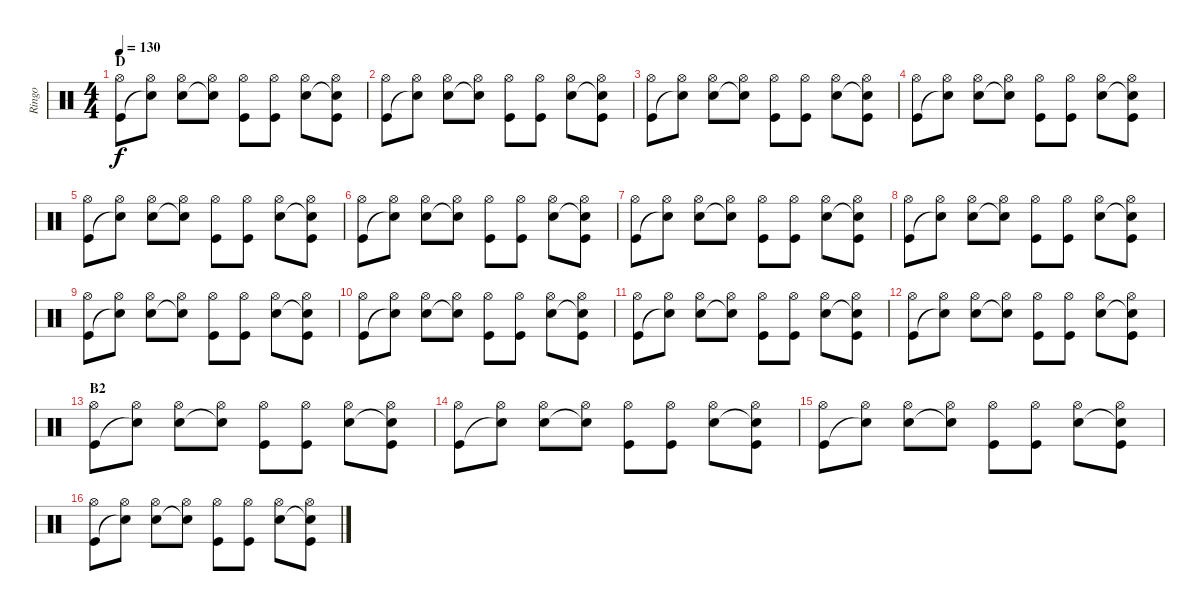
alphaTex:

\track ("Ringo" "Ringo") {instrument percussion}
\staff {score}
\articulation defaults
\ts (4 4)
\section ("" "D")
\tempo 130
\clef neutral
\ks c
("Hi-Hat (open)" "Kick (hit)").8{dy f} ("Hi-Hat (open)" "Snare (hit)"{t}).8 ("Hi-Hat (open)" "Snare (hit) 2").8 ("Hi-Hat (open)" "Snare (hit)"{t}).8 ("Hi-Hat (open)" "Kick (hit)").8 ("Hi-Hat (open)" "Kick (hit)").8 ("Hi-Hat (open)" "Snare (hit) 2").8 ("Hi-Hat (open)" "Snare (hit)"{t} "Kick (hit)").8 |
("Hi-Hat (open)" "Kick (hit)").8 ("Hi-Hat (open)" "Snare (hit)"{t}).8 ("Hi-Hat (open)" "Snare (hit) 2").8 ("Hi-Hat (open)" "Snare (hit)"{t}).8 ("Hi-Hat (open)" "Kick (hit)").8 ("Hi-Hat (open)" "Kick (hit)").8 ("Hi-Hat (open)" "Snare (hit) 2").8 ("Hi-Hat (open)" "Snare (hit)"{t} "Kick (hit)").8 |
("Hi-Hat (open)" "Kick (hit)").8 ("Hi-Hat (open)" "Snare (hit)"{t}).8 ("Hi-Hat (open)" "Snare (hit) 2").8 ("Hi-Hat (open)" "Snare (hit)"{t}).8 ("Hi-Hat (open)" "Kick (hit)").8 ("Hi-Hat (open)" "Kick (hit)").8 ("Hi-Hat (open)" "Snare (hit) 2").8 ("Hi-Hat (open)" "Snare (hit)"{t} "Kick (hit)").8 |
("Hi-Hat (open)" "Kick (hit)").8 ("Hi-Hat (open)" "Snare (hit)"{t}).8 ("Hi-Hat (open)" "Snare (hit) 2").8 ("Hi-Hat (open)" "Snare (hit)"{t}).8 ("Hi-Hat (open)" "Kick (hit)").8 ("Hi-Hat (open)" "Kick (hit)").8 ("Hi-Hat (open)" "Snare (hit) 2").8 ("Hi-Hat (open)" "Snare (hit)"{t} "Kick (hit)").8 |
("Hi-Hat (open)" "Kick (hit)").8 ("Hi-Hat (open)" "Snare (hit)"{t}).8 ("Hi-Hat (open)" "Snare (hit) 2").8 ("Hi-Hat (open)" "Snare (hit)"{t}).8 ("Hi-Hat (open)" "Kick (hit)").8 ("Hi-Hat (open)" "Kick (hit)").8 ("Hi-Hat (open)" "Snare (hit) 2").8 ("Hi-Hat (open)" "Snare (hit)"{t} "Kick (hit)").8 |
("Hi-Hat (open)" "Kick (hit)").8 ("Hi-Hat (open)" "Snare (hit)"{t}).8 ("Hi-Hat (open)" "Snare (hit) 2").8 ("Hi-Hat (open)" "Snare (hit)"{t}).8 ("Hi-Hat (open)" "Kick (hit)").8 ("Hi-Hat (open)" "Kick (hit)").8 ("Hi-Hat (open)" "Snare (hit) 2").8 ("Hi-Hat (open)" "Snare (hit)"{t} "Kick (hit)").8 |
("Hi-Hat (open)" "Kick (hit)").8 ("Hi-Hat (open)" "Snare (hit)"{t}).8 ("Hi-Hat (open)" "Snare (hit) 2").8 ("Hi-Hat (open)" "Snare (hit)"{t}).8 ("Hi-Hat (open)" "Kick (hit)").8 ("Hi-Hat (open)" "Kick (hit)").8 ("Hi-Hat (open)" "Snare (hit) 2").8 ("Hi-Hat (open)" "Snare (hit)"{t} "Kick (hit)").8 |
("Hi-Hat (open)" "Kick (hit)").8 ("Hi-Hat (open)" "Snare (hit)"{t}).8 ("Hi-Hat (open)" "Snare (hit) 2").8 ("Hi-Hat (open)" "Snare (hit)"{t}).8 ("Hi-Hat (open)" "Kick (hit)").8 ("Hi-Hat (open)" "Kick (hit)").8 ("Hi-Hat (open)" "Snare (hit) 2").8 ("Hi-Hat (open)" "Snare (hit)"{t} "Kick (hit)").8 |
("Hi-Hat (open)" "Kick (hit)").8 ("Hi-Hat (open)" "Snare (hit)"{t}).8 ("Hi-Hat (open)" "Snare (hit) 2").8 ("Hi-Hat (open)" "Snare (hit)"{t}).8 ("Hi-Hat (open)" "Kick (hit)").8 ("Hi-Hat (open)" "Kick (hit)").8 ("Hi-Hat (open)" "Snare (hit) 2").8 ("Hi-Hat (open)" "Snare (hit)"{t} "Kick (hit)").8 |
("Hi-Hat (open)" "Kick (hit)").8 ("Hi-Hat (open)" "Snare (hit)"{t}).8 ("Hi-Hat (open)" "Snare (hit) 2").8 ("Hi-Hat (open)" "Snare (hit)"{t}).8 ("Hi-Hat (open)" "Kick (hit)").8 ("Hi-Hat (open)" "Kick (hit)").8 ("Hi-Hat (open)" "Snare (hit) 2").8 ("Hi-Hat (open)" "Snare (hit)"{t} "Kick (hit)").8 |
("Hi-Hat (open)" "Kick (hit)").8 ("Hi-Hat (open)" "Snare (hit)"{t}).8 ("Hi-Hat (open)" "Snare (hit) 2").8 ("Hi-Hat (open)" "Snare (hit)"{t}).8 ("Hi-Hat (open)" "Kick (hit)").8 ("Hi-Hat (open)" "Kick (hit)").8 ("Hi-Hat (open)" "Snare (hit) 2").8 ("Hi-Hat (open)" "Snare (hit)"{t} "Kick (hit)").8 |
("Hi-Hat (open)" "Kick (hit)").8 ("Hi-Hat (open)" "Snare (hit)"{t}).8 ("Hi-Hat (open)" "Snare (hit) 2").8 ("Hi-Hat (open)" "Snare (hit)"{t}).8 ("Hi-Hat (open)" "Kick (hit)").8 ("Hi-Hat (open)" "Kick (hit)").8 ("Hi-Hat (open)" "Snare (hit) 2").8 ("Hi-Hat (open)" "Snare (hit)"{t} "Kick (hit)").8 |
\section ("" "B2")
("Hi-Hat (open)" "Kick (hit)").8 ("Hi-Hat (open)" "Snare (hit)"{t}).8 ("Hi-Hat (open)" "Snare (hit) 2").8 ("Hi-Hat (open)" "Snare (hit)"{t}).8 ("Hi-Hat (open)" "Kick (hit)").8 ("Hi-Hat (open)" "Kick (hit)").8 ("Hi-Hat (open)" "Snare (hit) 2").8 ("Hi-Hat (open)" "Snare (hit)"{t} "Kick (hit)").8 |
("Hi-Hat (open)" "Kick (hit)").8 ("Hi-Hat (open)" "Snare (hit)"{t}).8 ("Hi-Hat (open)" "Snare (hit) 2").8 ("Hi-Hat (open)" "Snare (hit)"{t}).8 ("Hi-Hat (open)" "Kick (hit)").8 ("Hi-Hat (open)" "Kick (hit)").8 ("Hi-Hat (open)" "Snare (hit) 2").8 ("Hi-Hat (open)" "Snare (hit)"{t} "Kick (hit)").8 |
("Hi-Hat (open)" "Kick (hit)").8 ("Hi-Hat (open)" "Snare (hit)"{t}).8 ("Hi-Hat (open)" "Snare (hit) 2").8 ("Hi-Hat (open)" "Snare (hit)"{t}).8 ("Hi-Hat (open)" "Kick (hit)").8 ("Hi-Hat (open)" "Kick (hit)").8 ("Hi-Hat (open)" "Snare (hit) 2").8 ("Hi-Hat (open)" "Snare (hit)"{t} "Kick (hit)").8 |
("Hi-Hat (open)" "Kick (hit)").8 ("Hi-Hat (open)" "Snare (hit)"{t}).8 ("Hi-Hat (open)" "Snare (hit) 2").8 ("Hi-Hat (open)" "Snare (hit)"{t}).8 ("Hi-Hat (open)" "Kick (hit)").8 ("Hi-Hat (open)" "Kick (hit)").8 ("Hi-Hat (open)" "Snare (hit) 2").8 ("Hi-Hat (open)" "Snare (hit)"{t} "Kick (hit)").8
